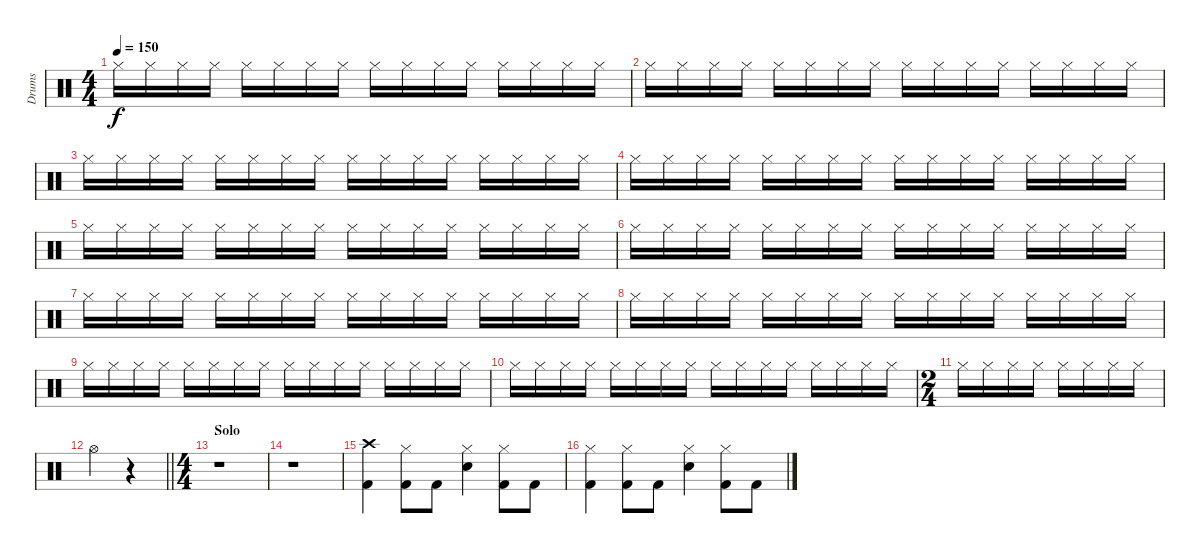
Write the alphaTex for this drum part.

\track ("Drums" "Drums") {instrument percussion}
\staff {score}
\articulation defaults
\ts (4 4)
\tempo 150
\clef neutral
\ks c "Hi-Hat (closed)".16{dy f} "Hi-Hat (closed)".16 "Hi-Hat (closed)".16 "Hi-Hat (closed)".16 "Hi-Hat (closed)".16 "Hi-Hat (closed)".16 "Hi-Hat (closed)".16 "Hi-Hat (closed)".16 "Hi-Hat (closed)".16 "Hi-Hat (closed)".16 "Hi-Hat (closed)".16 "Hi-Hat (closed)".16 "Hi-Hat (closed)".16 "Hi-Hat (closed)".16 "Hi-Hat (closed)".16 "Hi-Hat (closed)".16
|
"Hi-Hat (closed)".16 "Hi-Hat (closed)".16 "Hi-Hat (closed)".16 "Hi-Hat (closed)".16 "Hi-Hat (closed)".16 "Hi-Hat (closed)".16 "Hi-Hat (closed)".16 "Hi-Hat (closed)".16 "Hi-Hat (closed)".16 "Hi-Hat (closed)".16 "Hi-Hat (closed)".16 "Hi-Hat (closed)".16 "Hi-Hat (closed)".16 "Hi-Hat (closed)".16 "Hi-Hat (closed)".16 "Hi-Hat (closed)".16 |
"Hi-Hat (closed)".16 "Hi-Hat (closed)".16 "Hi-Hat (closed)".16 "Hi-Hat (closed)".16 "Hi-Hat (closed)".16 "Hi-Hat (closed)".16 "Hi-Hat (closed)".16 "Hi-Hat (closed)".16 "Hi-Hat (closed)".16 "Hi-Hat (closed)".16 "Hi-Hat (closed)".16 "Hi-Hat (closed)".16 "Hi-Hat (closed)".16 "Hi-Hat (closed)".16 "Hi-Hat (closed)".16 "Hi-Hat (closed)".16 |
"Hi-Hat (closed)".16 "Hi-Hat (closed)".16 "Hi-Hat (closed)".16 "Hi-Hat (closed)".16 "Hi-Hat (closed)".16 "Hi-Hat (closed)".16 "Hi-Hat (closed)".16 "Hi-Hat (closed)".16 "Hi-Hat (closed)".16 "Hi-Hat (closed)".16 "Hi-Hat (closed)".16 "Hi-Hat (closed)".16 "Hi-Hat (closed)".16 "Hi-Hat (closed)".16 "Hi-Hat (closed)".16 "Hi-Hat (closed)".16 |
"Hi-Hat (closed)".16 "Hi-Hat (closed)".16 "Hi-Hat (closed)".16 "Hi-Hat (closed)".16 "Hi-Hat (closed)".16 "Hi-Hat (closed)".16 "Hi-Hat (closed)".16 "Hi-Hat (closed)".16 "Hi-Hat (closed)".16 "Hi-Hat (closed)".16 "Hi-Hat (closed)".16 "Hi-Hat (closed)".16 "Hi-Hat (closed)".16 "Hi-Hat (closed)".16 "Hi-Hat (closed)".16 "Hi-Hat (closed)".16 |
"Hi-Hat (closed)".16 "Hi-Hat (closed)".16 "Hi-Hat (closed)".16 "Hi-Hat (closed)".16 "Hi-Hat (closed)".16 "Hi-Hat (closed)".16 "Hi-Hat (closed)".16 "Hi-Hat (closed)".16 "Hi-Hat (closed)".16 "Hi-Hat (closed)".16 "Hi-Hat (closed)".16 "Hi-Hat (closed)".16 "Hi-Hat (closed)".16 "Hi-Hat (closed)".16 "Hi-Hat (closed)".16 "Hi-Hat (closed)".16 |
"Hi-Hat (closed)".16 "Hi-Hat (closed)".16 "Hi-Hat (closed)".16 "Hi-Hat (closed)".16 "Hi-Hat (closed)".16 "Hi-Hat (closed)".16 "Hi-Hat (closed)".16 "Hi-Hat (closed)".16 "Hi-Hat (closed)".16 "Hi-Hat (closed)".16 "Hi-Hat (closed)".16 "Hi-Hat (closed)".16 "Hi-Hat (closed)".16 "Hi-Hat (closed)".16 "Hi-Hat (closed)".16 "Hi-Hat (closed)".16 |
"Hi-Hat (closed)".16 "Hi-Hat (closed)".16 "Hi-Hat (closed)".16 "Hi-Hat (closed)".16 "Hi-Hat (closed)".16 "Hi-Hat (closed)".16 "Hi-Hat (closed)".16 "Hi-Hat (closed)".16 "Hi-Hat (closed)".16 "Hi-Hat (closed)".16 "Hi-Hat (closed)".16 "Hi-Hat (closed)".16 "Hi-Hat (closed)".16 "Hi-Hat (closed)".16 "Hi-Hat (closed)".16 "Hi-Hat (closed)".16 |
"Hi-Hat (closed)".16 "Hi-Hat (closed)".16 "Hi-Hat (closed)".16 "Hi-Hat (closed)".16 "Hi-Hat (closed)".16 "Hi-Hat (closed)".16 "Hi-Hat (closed)".16 "Hi-Hat (closed)".16 "Hi-Hat (closed)".16 "Hi-Hat (closed)".16 "Hi-Hat (closed)".16 "Hi-Hat (closed)".16 "Hi-Hat (closed)".16 "Hi-Hat (closed)".16 "Hi-Hat (closed)".16 "Hi-Hat (closed)".16 |
"Hi-Hat (closed)".16 "Hi-Hat (closed)".16 "Hi-Hat (closed)".16 "Hi-Hat (closed)".16 "Hi-Hat (closed)".16 "Hi-Hat (closed)".16 "Hi-Hat (closed)".16 "Hi-Hat (closed)".16 "Hi-Hat (closed)".16 "Hi-Hat (closed)".16 "Hi-Hat (closed)".16 "Hi-Hat (closed)".16 "Hi-Hat (closed)".16 "Hi-Hat (closed)".16 "Hi-Hat (closed)".16 "Hi-Hat (closed)".16 |
\ts (2 4)
"Hi-Hat (closed)".16 "Hi-Hat (closed)".16 "Hi-Hat (closed)".16 "Hi-Hat (closed)".16 "Hi-Hat (closed)".16 "Hi-Hat (closed)".16 "Hi-Hat (closed)".16 "Hi-Hat (closed)".16 |
\barLineRight lightlight "Hi-Hat (open)".4
r.4 |
\ts (4 4)
\section ("" "Solo")
r.1 |
r.1 |
("Crash high (hit)" "Kick (hit) 2").4 ("Hi-Hat (closed)" "Kick (hit) 2").8 "Kick (hit) 2".8 ("Hi-Hat (closed)" "Snare (hit) 2").4 ("Hi-Hat (closed)" "Kick (hit) 2").8 "Kick (hit) 2".8 |
("Hi-Hat (closed)" "Kick (hit) 2").4 ("Hi-Hat (closed)" "Kick (hit) 2").8 "Kick (hit) 2".8 ("Hi-Hat (closed)" "Snare (hit) 2").4 ("Hi-Hat (closed)" "Kick (hit) 2").8 "Kick (hit) 2".8
